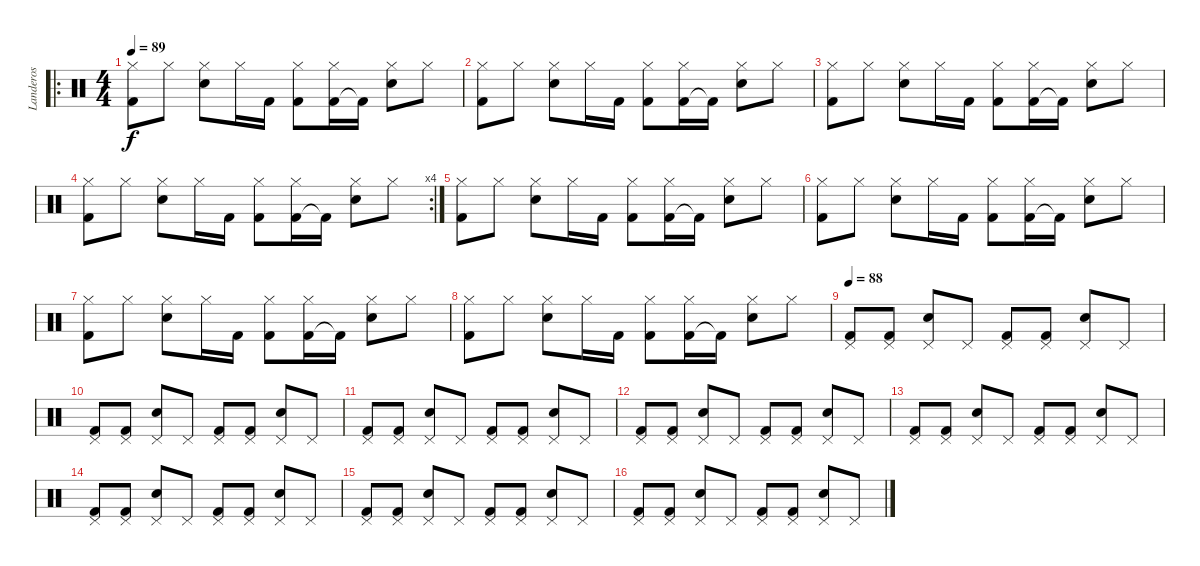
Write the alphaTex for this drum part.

\track ("Landeros" "Landeros") {instrument percussion}
\staff {score}
\articulation defaults
\ro
\ts (4 4)
\tempo 89
\clef neutral
\ks c
("Kick (hit) 2" "Hi-Hat (closed)").8{dy f} "Hi-Hat (closed)".8 ("Electric Snare (hit)" "Hi-Hat (closed)").8 "Hi-Hat (closed)".16 "Kick (hit) 2".16 ("Kick (hit) 2" "Hi-Hat (closed)").8 ("Kick (hit) 2" "Hi-Hat (closed)").16 "Kick (hit) 2"{t}.16 ("Electric Snare (hit)" "Hi-Hat (closed)").8 "Hi-Hat (closed)".8 |
("Kick (hit) 2" "Hi-Hat (closed)").8 "Hi-Hat (closed)".8 ("Electric Snare (hit)" "Hi-Hat (closed)").8 "Hi-Hat (closed)".16 "Kick (hit) 2".16 ("Kick (hit) 2" "Hi-Hat (closed)").8 ("Kick (hit) 2" "Hi-Hat (closed)").16 "Kick (hit) 2"{t}.16 ("Electric Snare (hit)" "Hi-Hat (closed)").8 "Hi-Hat (closed)".8 |
("Kick (hit) 2" "Hi-Hat (closed)").8 "Hi-Hat (closed)".8 ("Electric Snare (hit)" "Hi-Hat (closed)").8 "Hi-Hat (closed)".16 "Kick (hit) 2".16 ("Kick (hit) 2" "Hi-Hat (closed)").8 ("Kick (hit) 2" "Hi-Hat (closed)").16 "Kick (hit) 2"{t}.16 ("Electric Snare (hit)" "Hi-Hat (closed)").8 "Hi-Hat (closed)".8 |
\rc 4
("Kick (hit) 2" "Hi-Hat (closed)").8 "Hi-Hat (closed)".8 ("Electric Snare (hit)" "Hi-Hat (closed)").8 "Hi-Hat (closed)".16 "Kick (hit) 2".16 ("Kick (hit) 2" "Hi-Hat (closed)").8 ("Kick (hit) 2" "Hi-Hat (closed)").16 "Kick (hit) 2"{t}.16 ("Electric Snare (hit)" "Hi-Hat (closed)").8 "Hi-Hat (closed)".8 |
("Kick (hit) 2" "Hi-Hat (closed)").8 "Hi-Hat (closed)".8 ("Electric Snare (hit)" "Hi-Hat (closed)").8 "Hi-Hat (closed)".16 "Kick (hit) 2".16 ("Kick (hit) 2" "Hi-Hat (closed)").8 ("Kick (hit) 2" "Hi-Hat (closed)").16 "Kick (hit) 2"{t}.16 ("Electric Snare (hit)" "Hi-Hat (closed)").8 "Hi-Hat (closed)".8 |
("Kick (hit) 2" "Hi-Hat (closed)").8 "Hi-Hat (closed)".8 ("Electric Snare (hit)" "Hi-Hat (closed)").8 "Hi-Hat (closed)".16 "Kick (hit) 2".16 ("Kick (hit) 2" "Hi-Hat (closed)").8 ("Kick (hit) 2" "Hi-Hat (closed)").16 "Kick (hit) 2"{t}.16 ("Electric Snare (hit)" "Hi-Hat (closed)").8 "Hi-Hat (closed)".8 |
("Kick (hit) 2" "Hi-Hat (closed)").8 "Hi-Hat (closed)".8 ("Electric Snare (hit)" "Hi-Hat (closed)").8 "Hi-Hat (closed)".16 "Kick (hit) 2".16 ("Kick (hit) 2" "Hi-Hat (closed)").8 ("Kick (hit) 2" "Hi-Hat (closed)").16 "Kick (hit) 2"{t}.16 ("Electric Snare (hit)" "Hi-Hat (closed)").8 "Hi-Hat (closed)".8 |
("Kick (hit) 2" "Hi-Hat (closed)").8 "Hi-Hat (closed)".8 ("Electric Snare (hit)" "Hi-Hat (closed)").8 "Hi-Hat (closed)".16 "Kick (hit) 2".16 ("Kick (hit) 2" "Hi-Hat (closed)").8 ("Kick (hit) 2" "Hi-Hat (closed)").16 "Kick (hit) 2"{t}.16 ("Electric Snare (hit)" "Hi-Hat (closed)").8 "Hi-Hat (closed)".8 |
\tempo 88
("Kick (hit) 2" "Pedal Hi-Hat (hit)").8 ("Kick (hit) 2" "Pedal Hi-Hat (hit)").8 ("Electric Snare (hit)" "Pedal Hi-Hat (hit)").8 "Pedal Hi-Hat (hit)".8 ("Kick (hit) 2" "Pedal Hi-Hat (hit)").8 ("Kick (hit) 2" "Pedal Hi-Hat (hit)").8 ("Electric Snare (hit)" "Pedal Hi-Hat (hit)").8 "Pedal Hi-Hat (hit)".8 |
("Kick (hit) 2" "Pedal Hi-Hat (hit)").8 ("Kick (hit) 2" "Pedal Hi-Hat (hit)").8 ("Electric Snare (hit)" "Pedal Hi-Hat (hit)").8 "Pedal Hi-Hat (hit)".8 ("Kick (hit) 2" "Pedal Hi-Hat (hit)").8 ("Kick (hit) 2" "Pedal Hi-Hat (hit)").8 ("Electric Snare (hit)" "Pedal Hi-Hat (hit)").8 "Pedal Hi-Hat (hit)".8 |
("Kick (hit) 2" "Pedal Hi-Hat (hit)").8 ("Kick (hit) 2" "Pedal Hi-Hat (hit)").8 ("Electric Snare (hit)" "Pedal Hi-Hat (hit)").8 "Pedal Hi-Hat (hit)".8 ("Kick (hit) 2" "Pedal Hi-Hat (hit)").8 ("Kick (hit) 2" "Pedal Hi-Hat (hit)").8 ("Electric Snare (hit)" "Pedal Hi-Hat (hit)").8 "Pedal Hi-Hat (hit)".8 |
("Kick (hit) 2" "Pedal Hi-Hat (hit)").8 ("Kick (hit) 2" "Pedal Hi-Hat (hit)").8 ("Electric Snare (hit)" "Pedal Hi-Hat (hit)").8 "Pedal Hi-Hat (hit)".8 ("Kick (hit) 2" "Pedal Hi-Hat (hit)").8 ("Kick (hit) 2" "Pedal Hi-Hat (hit)").8 ("Electric Snare (hit)" "Pedal Hi-Hat (hit)").8 "Pedal Hi-Hat (hit)".8 |
("Kick (hit) 2" "Pedal Hi-Hat (hit)").8 ("Kick (hit) 2" "Pedal Hi-Hat (hit)").8 ("Electric Snare (hit)" "Pedal Hi-Hat (hit)").8 "Pedal Hi-Hat (hit)".8 ("Kick (hit) 2" "Pedal Hi-Hat (hit)").8 ("Kick (hit) 2" "Pedal Hi-Hat (hit)").8 ("Electric Snare (hit)" "Pedal Hi-Hat (hit)").8 "Pedal Hi-Hat (hit)".8 |
("Kick (hit) 2" "Pedal Hi-Hat (hit)").8 ("Kick (hit) 2" "Pedal Hi-Hat (hit)").8 ("Electric Snare (hit)" "Pedal Hi-Hat (hit)").8 "Pedal Hi-Hat (hit)".8 ("Kick (hit) 2" "Pedal Hi-Hat (hit)").8 ("Kick (hit) 2" "Pedal Hi-Hat (hit)").8 ("Electric Snare (hit)" "Pedal Hi-Hat (hit)").8 "Pedal Hi-Hat (hit)".8 |
("Kick (hit) 2" "Pedal Hi-Hat (hit)").8 ("Kick (hit) 2" "Pedal Hi-Hat (hit)").8 ("Electric Snare (hit)" "Pedal Hi-Hat (hit)").8 "Pedal Hi-Hat (hit)".8 ("Kick (hit) 2" "Pedal Hi-Hat (hit)").8 ("Kick (hit) 2" "Pedal Hi-Hat (hit)").8 ("Electric Snare (hit)" "Pedal Hi-Hat (hit)").8 "Pedal Hi-Hat (hit)".8 |
("Kick (hit) 2" "Pedal Hi-Hat (hit)").8 ("Kick (hit) 2" "Pedal Hi-Hat (hit)").8 ("Electric Snare (hit)" "Pedal Hi-Hat (hit)").8 "Pedal Hi-Hat (hit)".8 ("Kick (hit) 2" "Pedal Hi-Hat (hit)").8 ("Kick (hit) 2" "Pedal Hi-Hat (hit)").8 ("Electric Snare (hit)" "Pedal Hi-Hat (hit)").8 "Pedal Hi-Hat (hit)".8
